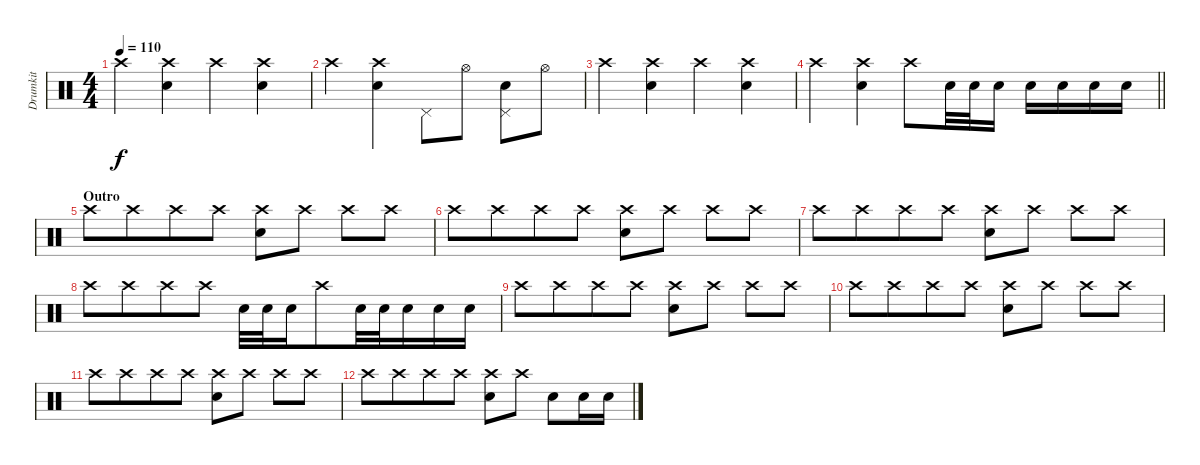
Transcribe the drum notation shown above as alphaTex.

\track ("Drumkit" "Drumkit") {instrument percussion}
\staff {score}
\articulation defaults
\ts (4 4)
\tempo 110
\clef neutral
\ks c "Crash high (hit)".4{dy f beam merge}
("Crash high (hit)" "Electric Snare (hit)").4{beam merge} "Crash high (hit)".4 ("Crash high (hit)" "Electric Snare (hit)").4 |
"Crash high (hit)".4 ("Crash high (hit)" "Electric Snare (hit)").4{beam merge} "Pedal Hi-Hat (hit)".8 "Hi-Hat (open)".8 ("Pedal Hi-Hat (hit)" "Electric Snare (hit)").8 "Hi-Hat (open)".8 |
"Crash high (hit)".4{beam merge} ("Crash high (hit)" "Electric Snare (hit)").4{beam merge} "Crash high (hit)".4 ("Crash high (hit)" "Electric Snare (hit)").4 |
\barLineRight lightlight "Crash high (hit)".4{beam merge}
("Crash high (hit)" "Electric Snare (hit)").4{beam merge} "Crash high (hit)".8 "Electric Snare (hit)".32 "Electric Snare (hit)".32 "Electric Snare (hit)".16 "Electric Snare (hit)".16{beam merge} "Electric Snare (hit)".16 "Electric Snare (hit)".16 "Electric Snare (hit)".16 |
\section ("" "Outro")
"Crash high (hit)".8 "Crash high (hit)".8{beam merge} "Crash high (hit)".8{beam merge} "Crash high (hit)".8 ("Crash high (hit)" "Electric Snare (hit)").8 "Crash high (hit)".8 "Crash high (hit)".8 "Crash high (hit)".8 |
"Crash high (hit)".8 "Crash high (hit)".8{beam merge} "Crash high (hit)".8 "Crash high (hit)".8 ("Crash high (hit)" "Electric Snare (hit)").8 "Crash high (hit)".8 "Crash high (hit)".8 "Crash high (hit)".8 |
"Crash high (hit)".8 "Crash high (hit)".8{beam merge} "Crash high (hit)".8{beam merge} "Crash high (hit)".8 ("Crash high (hit)" "Electric Snare (hit)").8 "Crash high (hit)".8 "Crash high (hit)".8 "Crash high (hit)".8 |
"Crash high (hit)".8 "Crash high (hit)".8{beam merge} "Crash high (hit)".8 "Crash high (hit)".8 "Electric Snare (hit)".32 "Electric Snare (hit)".32 "Electric Snare (hit)".16 "Crash high (hit)".8{beam merge} "Electric Snare (hit)".32 "Electric Snare (hit)".32 "Electric Snare (hit)".16 "Electric Snare (hit)".16 "Electric Snare (hit)".16 |
"Crash high (hit)".8 "Crash high (hit)".8{beam merge} "Crash high (hit)".8{beam merge} "Crash high (hit)".8 ("Crash high (hit)" "Electric Snare (hit)").8 "Crash high (hit)".8 "Crash high (hit)".8 "Crash high (hit)".8 |
"Crash high (hit)".8 "Crash high (hit)".8{beam merge} "Crash high (hit)".8 "Crash high (hit)".8 ("Crash high (hit)" "Electric Snare (hit)").8 "Crash high (hit)".8 "Crash high (hit)".8 "Crash high (hit)".8 |
"Crash high (hit)".8 "Crash high (hit)".8{beam merge} "Crash high (hit)".8{beam merge} "Crash high (hit)".8 ("Crash high (hit)" "Electric Snare (hit)").8 "Crash high (hit)".8 "Crash high (hit)".8 "Crash high (hit)".8 |
"Crash high (hit)".8 "Crash high (hit)".8{beam merge} "Crash high (hit)".8{beam merge} "Crash high (hit)".8 ("Crash high (hit)" "Electric Snare (hit)").8 "Crash high (hit)".8 "Electric Snare (hit)".8 "Electric Snare (hit)".16 "Electric Snare (hit)".16
